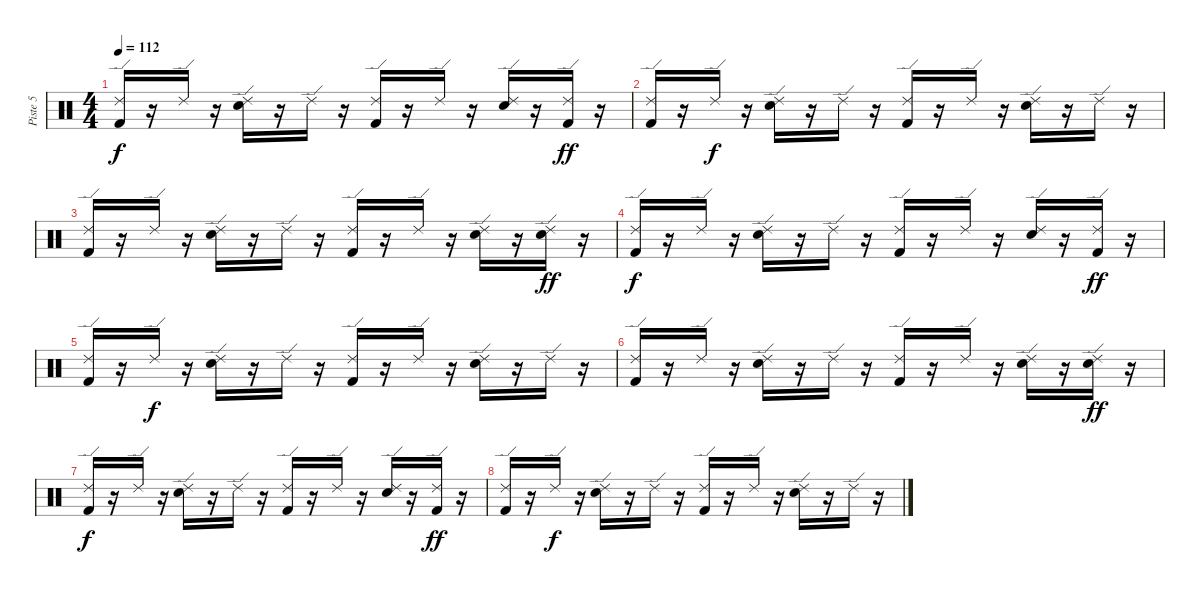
\track ("Piste 5" "Piste 5") {instrument percussion}
\staff {score}
\articulation defaults
\ts (4 4)
\tempo 112
\clef neutral
\ks c
("Ride (edge) 2" "Kick (hit) 2").16{dy f} r.16 "Ride (edge) 2".16 r.16 ("Ride (edge) 2" "Electric Snare (hit)").16 r.16 "Ride (edge) 2".16 r.16 ("Ride (edge) 2" "Kick (hit) 2").16 r.16 "Ride (edge) 2".16 r.16 ("Ride (edge) 2" "Electric Snare (hit)").16 r.16 ("Ride (edge) 2" "Kick (hit) 2").16{dy ff} r.16 |
("Ride (edge) 2" "Kick (hit) 2").16 r.16 "Ride (edge) 2".16{dy f} r.16 ("Ride (edge) 2" "Electric Snare (hit)").16 r.16 "Ride (edge) 2".16 r.16 ("Ride (edge) 2" "Kick (hit) 2").16 r.16 "Ride (edge) 2".16 r.16 ("Ride (edge) 2" "Electric Snare (hit)").16 r.16 "Ride (edge) 2".16 r.16 |
("Ride (edge) 2" "Kick (hit) 2").16 r.16 "Ride (edge) 2".16 r.16 ("Ride (edge) 2" "Electric Snare (hit)").16 r.16 "Ride (edge) 2".16 r.16 ("Ride (edge) 2" "Kick (hit) 2").16 r.16 "Ride (edge) 2".16 r.16 ("Ride (edge) 2" "Electric Snare (hit)").16 r.16 ("Ride (edge) 2" "Electric Snare (hit)").16{dy ff} r.16 |
("Kick (hit) 2" "Ride (edge) 2").16{dy f} r.16 "Ride (edge) 2".16 r.16 ("Electric Snare (hit)" "Ride (edge) 2").16 r.16 "Ride (edge) 2".16 r.16 ("Kick (hit) 2" "Ride (edge) 2").16 r.16 "Ride (edge) 2".16 r.16 ("Electric Snare (hit)" "Ride (edge) 2").16 r.16 ("Kick (hit) 2" "Ride (edge) 2").16{dy ff} r.16 |
("Kick (hit) 2" "Ride (edge) 2").16 r.16 "Ride (edge) 2".16{dy f} r.16 ("Electric Snare (hit)" "Ride (edge) 2").16 r.16 "Ride (edge) 2".16 r.16 ("Kick (hit) 2" "Ride (edge) 2").16 r.16 "Ride (edge) 2".16 r.16 ("Electric Snare (hit)" "Ride (edge) 2").16 r.16 "Ride (edge) 2".16 r.16 |
("Kick (hit) 2" "Ride (edge) 2").16 r.16 "Ride (edge) 2".16 r.16 ("Electric Snare (hit)" "Ride (edge) 2").16 r.16 "Ride (edge) 2".16 r.16 ("Kick (hit) 2" "Ride (edge) 2").16 r.16 "Ride (edge) 2".16 r.16 ("Electric Snare (hit)" "Ride (edge) 2").16 r.16 ("Electric Snare (hit)" "Ride (edge) 2").16{dy ff} r.16 |
("Ride (edge) 2" "Kick (hit) 2").16{dy f} r.16 "Ride (edge) 2".16 r.16 ("Ride (edge) 2" "Electric Snare (hit)").16 r.16 "Ride (edge) 2".16 r.16 ("Ride (edge) 2" "Kick (hit) 2").16 r.16 "Ride (edge) 2".16 r.16 ("Ride (edge) 2" "Electric Snare (hit)").16 r.16 ("Ride (edge) 2" "Kick (hit) 2").16{dy ff} r.16 |
("Ride (edge) 2" "Kick (hit) 2").16 r.16 "Ride (edge) 2".16{dy f} r.16 ("Ride (edge) 2" "Electric Snare (hit)").16 r.16 "Ride (edge) 2".16 r.16 ("Ride (edge) 2" "Kick (hit) 2").16 r.16 "Ride (edge) 2".16 r.16 ("Ride (edge) 2" "Electric Snare (hit)").16 r.16 "Ride (edge) 2".16 r.16
